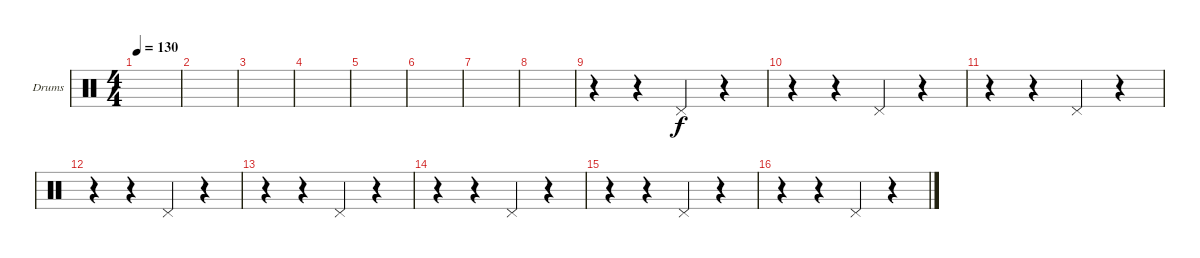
\defaultSystemsLayout 4
\bracketExtendMode groupsimilarinstruments
\firstSystemTrackNameOrientation horizontal
\otherSystemsTrackNameOrientation horizontal
\track ("Drumkit" "Drums") {instrument percussion}
\staff {score}
\articulation defaults
\ts (4 4)
\tempo 130
\clef neutral
\scale
0.333333
\ks c
|
\scale
0.333333 |
\scale
0.333333 |
\scale
0.333333 |
\scale
0.333333 |
\scale
0.333333 |
\scale
0.333333 |
\scale
0.333333 |
\scale
0.333333 r.4 r.4 "Pedal Hi-Hat (hit)".4 r.4 |
\scale
0.333333 r.4 r.4 "Pedal Hi-Hat (hit)".4 r.4 |
\scale
0.333333 r.4 r.4 "Pedal Hi-Hat (hit)".4 r.4 |
\scale
0.333333 r.4 r.4 "Pedal Hi-Hat (hit)".4 r.4 |
\scale
0.333333 r.4 r.4 "Pedal Hi-Hat (hit)".4 r.4 |
\scale
0.333333 r.4 r.4 "Pedal Hi-Hat (hit)".4 r.4 |
r.4 r.4 "Pedal Hi-Hat (hit)".4 r.4 |
r.4 r.4 "Pedal Hi-Hat (hit)".4 r.4
